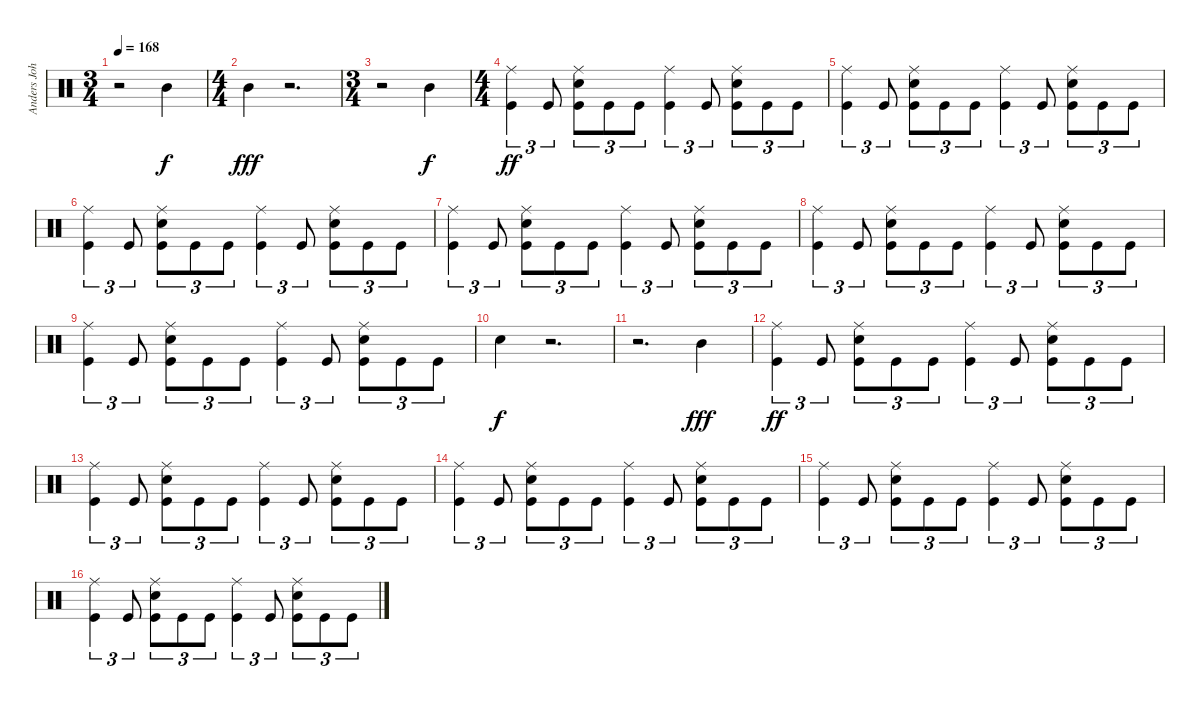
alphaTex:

\track ("Anders Johansson (Drums)" "Anders Joh") {instrument percussion}
\staff {score}
\articulation defaults
\ts (3 4)
\tempo 168
\clef neutral
\ks c
r.2{dy fff} "Mid Tom (hit)".4{dy f} |
\ts (4 4)
"Mid Tom (hit)".4{dy fff} r.2{d} |
\ts (3 4)
r.2 "Mid Tom (hit)".4{dy f} |
\ts (4 4)
("Ride (middle)" "Kick (hit)").4{tu (3 2) dy ff} "Kick (hit)".8{tu (3 2)} ("Ride (middle)" "Electric Snare (hit)" "Kick (hit)").8{tu (3 2)} "Kick (hit)".8{tu (3 2)} "Kick (hit)".8{tu (3 2)} ("Ride (middle)" "Kick (hit)").4{tu (3 2)} "Kick (hit)".8{tu (3 2)} ("Ride (middle)" "Electric Snare (hit)" "Kick (hit)").8{tu (3 2)} "Kick (hit)".8{tu (3 2)} "Kick (hit)".8{tu (3 2)} |
("Ride (middle)" "Kick (hit)").4{tu (3 2)} "Kick (hit)".8{tu (3 2)} ("Ride (middle)" "Electric Snare (hit)" "Kick (hit)").8{tu (3 2)} "Kick (hit)".8{tu (3 2)} "Kick (hit)".8{tu (3 2)} ("Ride (middle)" "Kick (hit)").4{tu (3 2)} "Kick (hit)".8{tu (3 2)} ("Ride (middle)" "Electric Snare (hit)" "Kick (hit)").8{tu (3 2)} "Kick (hit)".8{tu (3 2)} "Kick (hit)".8{tu (3 2)} |
("Ride (middle)" "Kick (hit)").4{tu (3 2)} "Kick (hit)".8{tu (3 2)} ("Ride (middle)" "Electric Snare (hit)" "Kick (hit)").8{tu (3 2)} "Kick (hit)".8{tu (3 2)} "Kick (hit)".8{tu (3 2)} ("Ride (middle)" "Kick (hit)").4{tu (3 2)} "Kick (hit)".8{tu (3 2)} ("Ride (middle)" "Electric Snare (hit)" "Kick (hit)").8{tu (3 2)} "Kick (hit)".8{tu (3 2)} "Kick (hit)".8{tu (3 2)} |
("Ride (middle)" "Kick (hit)").4{tu (3 2)} "Kick (hit)".8{tu (3 2)} ("Ride (middle)" "Electric Snare (hit)" "Kick (hit)").8{tu (3 2)} "Kick (hit)".8{tu (3 2)} "Kick (hit)".8{tu (3 2)} ("Ride (middle)" "Kick (hit)").4{tu (3 2)} "Kick (hit)".8{tu (3 2)} ("Ride (middle)" "Electric Snare (hit)" "Kick (hit)").8{tu (3 2)} "Kick (hit)".8{tu (3 2)} "Kick (hit)".8{tu (3 2)} |
("Ride (middle)" "Kick (hit)").4{tu (3 2)} "Kick (hit)".8{tu (3 2)} ("Ride (middle)" "Electric Snare (hit)" "Kick (hit)").8{tu (3 2)} "Kick (hit)".8{tu (3 2)} "Kick (hit)".8{tu (3 2)} ("Ride (middle)" "Kick (hit)").4{tu (3 2)} "Kick (hit)".8{tu (3 2)} ("Ride (middle)" "Electric Snare (hit)" "Kick (hit)").8{tu (3 2)} "Kick (hit)".8{tu (3 2)} "Kick (hit)".8{tu (3 2)} |
("Ride (middle)" "Kick (hit)").4{tu (3 2)} "Kick (hit)".8{tu (3 2)} ("Ride (middle)" "Electric Snare (hit)" "Kick (hit)").8{tu (3 2)} "Kick (hit)".8{tu (3 2)} "Kick (hit)".8{tu (3 2)} ("Ride (middle)" "Kick (hit)").4{tu (3 2)} "Kick (hit)".8{tu (3 2)} ("Ride (middle)" "Electric Snare (hit)" "Kick (hit)").8{tu (3 2)} "Kick (hit)".8{tu (3 2)} "Kick (hit)".8{tu (3 2)} |
"Electric Snare (hit)".4{dy f} r.2{d} |
r.2{d} "Mid Tom (hit)".4{dy fff} |
("Ride (middle)" "Kick (hit)").4{tu (3 2) dy ff} "Kick (hit)".8{tu (3 2)} ("Ride (middle)" "Electric Snare (hit)" "Kick (hit)").8{tu (3 2)} "Kick (hit)".8{tu (3 2)} "Kick (hit)".8{tu (3 2)} ("Ride (middle)" "Kick (hit)").4{tu (3 2)} "Kick (hit)".8{tu (3 2)} ("Ride (middle)" "Electric Snare (hit)" "Kick (hit)").8{tu (3 2)} "Kick (hit)".8{tu (3 2)} "Kick (hit)".8{tu (3 2)} |
("Ride (middle)" "Kick (hit)").4{tu (3 2)} "Kick (hit)".8{tu (3 2)} ("Ride (middle)" "Electric Snare (hit)" "Kick (hit)").8{tu (3 2)} "Kick (hit)".8{tu (3 2)} "Kick (hit)".8{tu (3 2)} ("Ride (middle)" "Kick (hit)").4{tu (3 2)} "Kick (hit)".8{tu (3 2)} ("Ride (middle)" "Electric Snare (hit)" "Kick (hit)").8{tu (3 2)} "Kick (hit)".8{tu (3 2)} "Kick (hit)".8{tu (3 2)} |
("Ride (middle)" "Kick (hit)").4{tu (3 2)} "Kick (hit)".8{tu (3 2)} ("Ride (middle)" "Electric Snare (hit)" "Kick (hit)").8{tu (3 2)} "Kick (hit)".8{tu (3 2)} "Kick (hit)".8{tu (3 2)} ("Ride (middle)" "Kick (hit)").4{tu (3 2)} "Kick (hit)".8{tu (3 2)} ("Ride (middle)" "Electric Snare (hit)" "Kick (hit)").8{tu (3 2)} "Kick (hit)".8{tu (3 2)} "Kick (hit)".8{tu (3 2)} |
("Ride (middle)" "Kick (hit)").4{tu (3 2)} "Kick (hit)".8{tu (3 2)} ("Ride (middle)" "Electric Snare (hit)" "Kick (hit)").8{tu (3 2)} "Kick (hit)".8{tu (3 2)} "Kick (hit)".8{tu (3 2)} ("Ride (middle)" "Kick (hit)").4{tu (3 2)} "Kick (hit)".8{tu (3 2)} ("Ride (middle)" "Electric Snare (hit)" "Kick (hit)").8{tu (3 2)} "Kick (hit)".8{tu (3 2)} "Kick (hit)".8{tu (3 2)} |
("Ride (middle)" "Kick (hit)").4{tu (3 2)} "Kick (hit)".8{tu (3 2)} ("Ride (middle)" "Electric Snare (hit)" "Kick (hit)").8{tu (3 2)} "Kick (hit)".8{tu (3 2)} "Kick (hit)".8{tu (3 2)} ("Ride (middle)" "Kick (hit)").4{tu (3 2)} "Kick (hit)".8{tu (3 2)} ("Ride (middle)" "Electric Snare (hit)" "Kick (hit)").8{tu (3 2)} "Kick (hit)".8{tu (3 2)} "Kick (hit)".8{tu (3 2)}
